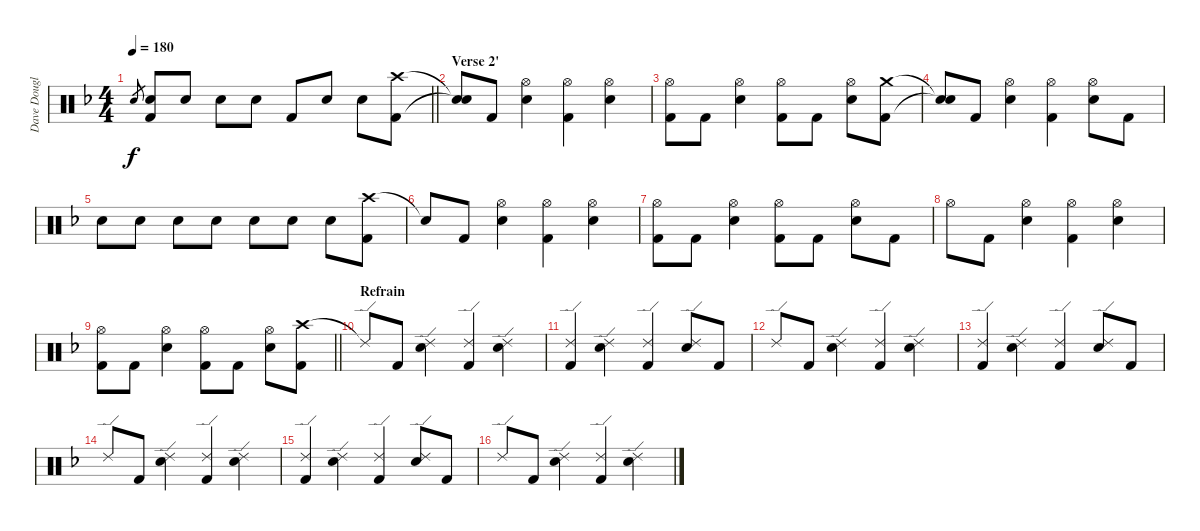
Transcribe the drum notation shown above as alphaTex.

\track ("Dave Douglas (Drum)" "Dave Dougl") {instrument percussion}
\staff {score}
\articulation defaults
\ts (4 4)
\tempo 180
\clef neutral
\barLineRight lightlight
\ks dminor "Snare (hit) 2".8{gr dy f}
("Snare (hit) 2" "Kick (hit) 2").8 "Snare (hit) 2".8 "Snare (hit) 2".8 "Snare (hit) 2".8 "Kick (hit) 2".8 "Snare (hit) 2".8 "Snare (hit) 2".8 ("Crash high (hit)" "Kick (hit) 2").8 |
\section ("" "Verse 2'")
("Snare (hit)"{t} "Snare (hit)"{t}).8 "Kick (hit) 2".8 ("Hi-Hat (open)" "Snare (hit) 2").4 ("Hi-Hat (open)" "Kick (hit) 2").4 ("Hi-Hat (open)" "Snare (hit) 2").4 |
("Hi-Hat (open)" "Kick (hit) 2").8 "Kick (hit) 2".8 ("Hi-Hat (open)" "Snare (hit) 2").4 ("Hi-Hat (open)" "Kick (hit) 2").8 "Kick (hit) 2".8 ("Hi-Hat (open)" "Snare (hit) 2").8 ("Crash medium (hit)" "Kick (hit) 2").8 |
("Snare (hit)"{t} "Snare (hit)"{t}).8 "Kick (hit) 2".8 ("Hi-Hat (open)" "Snare (hit) 2").4 ("Hi-Hat (open)" "Kick (hit) 2").4 ("Hi-Hat (open)" "Snare (hit) 2").8 "Kick (hit) 2".8 |
"Snare (hit) 2".8 "Snare (hit) 2".8 "Snare (hit) 2".8 "Snare (hit) 2".8 "Snare (hit) 2".8 "Snare (hit) 2".8 "Snare (hit) 2".8 ("Crash high (hit)" "Kick (hit) 2").8 |
"Snare (hit)"{t}.8 "Kick (hit) 2".8 ("Hi-Hat (open)" "Snare (hit) 2").4 ("Hi-Hat (open)" "Kick (hit) 2").4 ("Hi-Hat (open)" "Snare (hit) 2").4 |
("Hi-Hat (open)" "Kick (hit) 2").8 "Kick (hit) 2".8 ("Hi-Hat (open)" "Snare (hit) 2").4 ("Hi-Hat (open)" "Kick (hit) 2").8 "Kick (hit) 2".8 ("Hi-Hat (open)" "Snare (hit) 2").8 "Kick (hit) 2".8 |
"Hi-Hat (open)".8 "Kick (hit) 2".8 ("Hi-Hat (open)" "Snare (hit) 2").4 ("Hi-Hat (open)" "Kick (hit) 2").4 ("Hi-Hat (open)" "Snare (hit) 2").4 |
\barLineRight lightlight
("Hi-Hat (open)" "Kick (hit) 2").8 "Kick (hit) 2".8 ("Hi-Hat (open)" "Snare (hit) 2").4 ("Hi-Hat (open)" "Kick (hit) 2").8 "Kick (hit) 2".8 ("Hi-Hat (open)" "Snare (hit) 2").8 ("Crash high (hit)" "Kick (hit) 2").8 |
\section ("" "Refrain")
"Ride (edge) 2"{t}.8 "Kick (hit) 2".8 ("Ride (edge) 2" "Snare (hit) 2").4 ("Ride (edge) 2" "Kick (hit) 2").4 ("Ride (edge) 2" "Snare (hit) 2").4 |
("Ride (edge) 2" "Kick (hit) 2").4 ("Ride (edge) 2" "Snare (hit) 2").4 ("Ride (edge) 2" "Kick (hit) 2").4 ("Ride (edge) 2" "Snare (hit) 2").8 "Kick (hit) 2".8 |
"Ride (edge) 2".8 "Kick (hit) 2".8 ("Ride (edge) 2" "Snare (hit) 2").4 ("Ride (edge) 2" "Kick (hit) 2").4 ("Ride (edge) 2" "Snare (hit) 2").4 |
("Ride (edge) 2" "Kick (hit) 2").4 ("Ride (edge) 2" "Snare (hit) 2").4 ("Ride (edge) 2" "Kick (hit) 2").4 ("Ride (edge) 2" "Snare (hit) 2").8 "Kick (hit) 2".8 |
"Ride (edge) 2".8 "Kick (hit) 2".8 ("Ride (edge) 2" "Snare (hit) 2").4 ("Ride (edge) 2" "Kick (hit) 2").4 ("Ride (edge) 2" "Snare (hit) 2").4 |
("Ride (edge) 2" "Kick (hit) 2").4 ("Ride (edge) 2" "Snare (hit) 2").4 ("Ride (edge) 2" "Kick (hit) 2").4 ("Ride (edge) 2" "Snare (hit) 2").8 "Kick (hit) 2".8 |
"Ride (edge) 2".8 "Kick (hit) 2".8 ("Ride (edge) 2" "Snare (hit) 2").4 ("Ride (edge) 2" "Kick (hit) 2").4 ("Ride (edge) 2" "Snare (hit) 2").4
